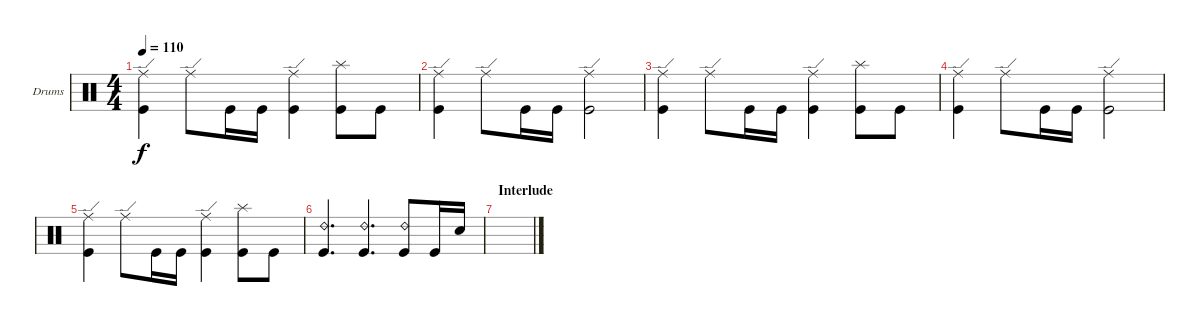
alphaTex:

\bracketExtendMode groupsimilarinstruments
\firstSystemTrackNameOrientation horizontal
\otherSystemsTrackNameOrientation horizontal
\track ("Drumkit" "Drums") {instrument percussion}
\staff {score}
\articulation defaults
\ts (4 4)
\tempo 110
\clef neutral
\ks c
("Ride (edge)" "Kick (hit)").4{dy f} "Ride (edge)".8 "Kick (hit)".16 "Kick (hit)".16 ("Ride (edge)" "Kick (hit)").4 ("Splash (hit)" "Kick (hit)").8 "Kick (hit)".8 |
("Ride (edge)" "Kick (hit)").4 "Ride (edge)".8 "Kick (hit)".16 "Kick (hit)".16 ("Ride (edge)" "Kick (hit)").2 |
("Ride (edge)" "Kick (hit)").4 "Ride (edge)".8 "Kick (hit)".16 "Kick (hit)".16 ("Ride (edge)" "Kick (hit)").4 ("Splash (hit)" "Kick (hit)").8 "Kick (hit)".8 |
("Ride (edge)" "Kick (hit)").4 "Ride (edge)".8 "Kick (hit)".16 "Kick (hit)".16 ("Ride (edge)" "Kick (hit)").2 |
("Ride (edge)" "Kick (hit)").4 "Ride (edge)".8 "Kick (hit)".16 "Kick (hit)".16 ("Ride (edge)" "Kick (hit)").4 ("Splash (hit)" "Kick (hit)").8 "Kick (hit)".8 |
("Kick (hit)" "Ride (bell) 2").4{d} ("Kick (hit)" "Ride (bell) 2").4{d} ("Kick (hit)" "Ride (bell) 2").8 "Kick (hit)".16 "Snare (hit) 2".16 |
\section ("" "Interlude")
